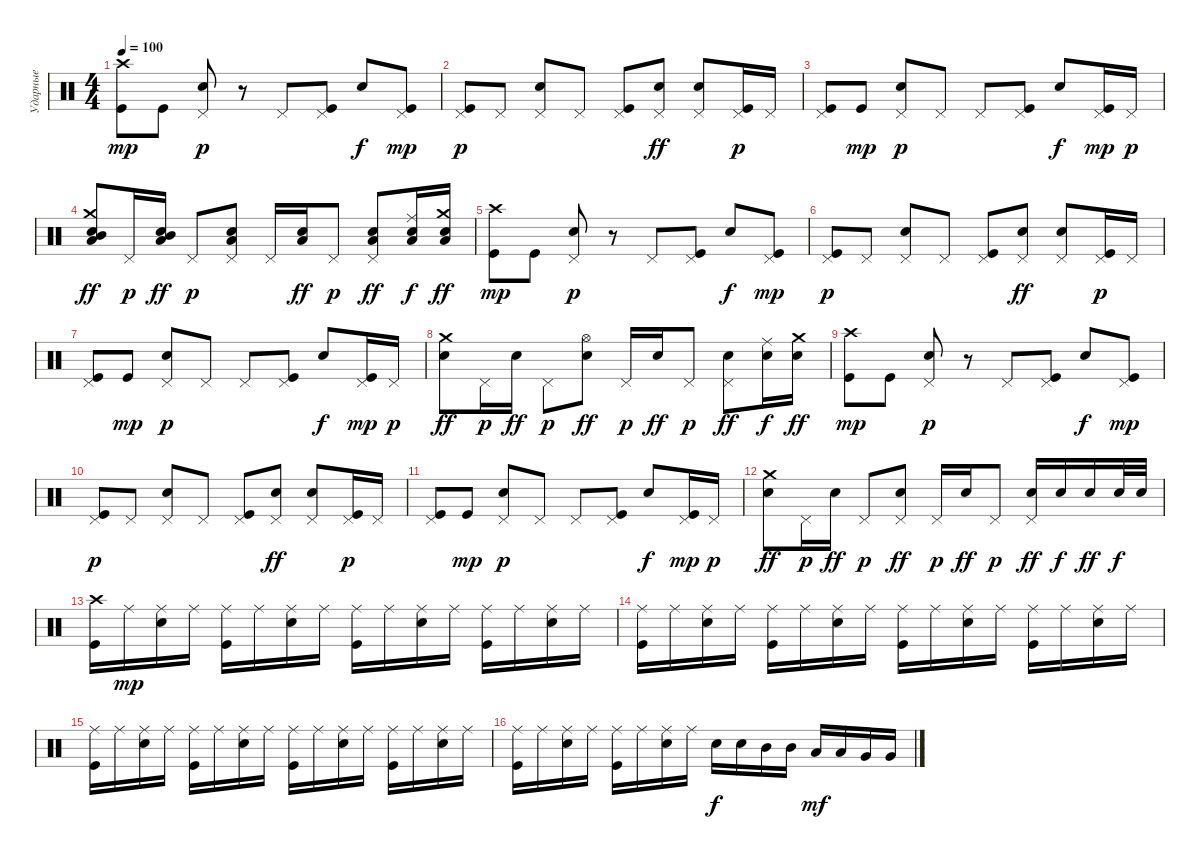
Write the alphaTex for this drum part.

\track ("Ударные" "Ударные") {instrument percussion}
\staff {score}
\articulation defaults
\ts (4 4)
\tempo 100
\clef neutral
\ks c
("Crash high (hit)" "Kick (hit)").8{dy mp} "Kick (hit)".8 ("Pedal Hi-Hat (hit)" "Snare (hit) 2").8{dy p} r.8 "Pedal Hi-Hat (hit)".8 ("Pedal Hi-Hat (hit)" "Kick (hit)").8 "Snare (hit) 2".8{dy f} ("Pedal Hi-Hat (hit)" "Kick (hit)").8{dy mp} |
("Pedal Hi-Hat (hit)" "Kick (hit)").8{dy p} "Pedal Hi-Hat (hit)".8 ("Pedal Hi-Hat (hit)" "Snare (hit) 2").8 "Pedal Hi-Hat (hit)".8 ("Pedal Hi-Hat (hit)" "Kick (hit)").8 ("Pedal Hi-Hat (hit)" "Electric Snare (hit)").8{dy ff} ("Pedal Hi-Hat (hit)" "Electric Snare (hit)").8 ("Pedal Hi-Hat (hit)" "Kick (hit)").16{dy p} "Pedal Hi-Hat (hit)".16 |
("Pedal Hi-Hat (hit)" "Kick (hit)").8 "Kick (hit)".8{dy mp} ("Pedal Hi-Hat (hit)" "Snare (hit) 2").8{dy p} "Pedal Hi-Hat (hit)".8 "Pedal Hi-Hat (hit)".8 ("Pedal Hi-Hat (hit)" "Kick (hit)").8 "Snare (hit) 2".8{dy f} ("Pedal Hi-Hat (hit)" "Kick (hit)").16{dy mp} "Pedal Hi-Hat (hit)".16{dy p} |
("Crash medium (hit)" "Mid Tom (hit)" "Snare (hit) 2" "Low Tom (hit)").8{dy ff} "Pedal Hi-Hat (hit)".16{dy p} ("Snare (hit) 2" "Low Tom (hit)" "Mid Tom (hit)").16{dy ff} "Pedal Hi-Hat (hit)".8{dy p} ("Pedal Hi-Hat (hit)" "Snare (hit) 2" "Low Tom (hit)").8 "Pedal Hi-Hat (hit)".16 ("Snare (hit) 2" "Low Tom (hit)").16{dy ff} "Pedal Hi-Hat (hit)".8{dy p} ("Pedal Hi-Hat (hit)" "Snare (hit) 2" "Low Tom (hit)").8{dy ff} ("Snare (hit) 2" "Ride (middle)" "Low Tom (hit)").16{dy f} ("Crash medium (hit)" "Snare (hit) 2" "Low Tom (hit)").16{dy ff} |
("Crash high (hit)" "Kick (hit)").8{dy mp} "Kick (hit)".8 ("Pedal Hi-Hat (hit)" "Snare (hit) 2").8{dy p} r.8 "Pedal Hi-Hat (hit)".8 ("Pedal Hi-Hat (hit)" "Kick (hit)").8 "Snare (hit) 2".8{dy f} ("Pedal Hi-Hat (hit)" "Kick (hit)").8{dy mp} |
("Pedal Hi-Hat (hit)" "Kick (hit)").8{dy p} "Pedal Hi-Hat (hit)".8 ("Pedal Hi-Hat (hit)" "Snare (hit) 2").8 "Pedal Hi-Hat (hit)".8 ("Pedal Hi-Hat (hit)" "Kick (hit)").8 ("Pedal Hi-Hat (hit)" "Electric Snare (hit)").8{dy ff} ("Pedal Hi-Hat (hit)" "Electric Snare (hit)").8 ("Pedal Hi-Hat (hit)" "Kick (hit)").16{dy p} "Pedal Hi-Hat (hit)".16 |
("Pedal Hi-Hat (hit)" "Kick (hit)").8 "Kick (hit)".8{dy mp} ("Pedal Hi-Hat (hit)" "Snare (hit) 2").8{dy p} "Pedal Hi-Hat (hit)".8 "Pedal Hi-Hat (hit)".8 ("Pedal Hi-Hat (hit)" "Kick (hit)").8 "Snare (hit) 2".8{dy f} ("Pedal Hi-Hat (hit)" "Kick (hit)").16{dy mp} "Pedal Hi-Hat (hit)".16{dy p} |
("Crash medium (hit)" "Snare (hit) 2").8{dy ff} "Pedal Hi-Hat (hit)".16{dy p} "Snare (hit) 2".16{dy ff} "Pedal Hi-Hat (hit)".8{dy p} ("Hi-Hat (open)" "Snare (hit) 2").8{dy ff} "Pedal Hi-Hat (hit)".16{dy p} "Snare (hit) 2".16{dy ff} "Pedal Hi-Hat (hit)".8{dy p} ("Pedal Hi-Hat (hit)" "Snare (hit) 2").8{dy ff} ("Snare (hit) 2" "Ride (middle)").16{dy f} ("Crash medium (hit)" "Snare (hit) 2").16{dy ff} |
("Crash high (hit)" "Kick (hit)").8{dy mp} "Kick (hit)".8 ("Pedal Hi-Hat (hit)" "Snare (hit) 2").8{dy p} r.8 "Pedal Hi-Hat (hit)".8 ("Pedal Hi-Hat (hit)" "Kick (hit)").8 "Snare (hit) 2".8{dy f} ("Pedal Hi-Hat (hit)" "Kick (hit)").8{dy mp} |
("Pedal Hi-Hat (hit)" "Kick (hit)").8{dy p} "Pedal Hi-Hat (hit)".8 ("Pedal Hi-Hat (hit)" "Snare (hit) 2").8 "Pedal Hi-Hat (hit)".8 ("Pedal Hi-Hat (hit)" "Kick (hit)").8 ("Pedal Hi-Hat (hit)" "Electric Snare (hit)").8{dy ff} ("Pedal Hi-Hat (hit)" "Electric Snare (hit)").8 ("Pedal Hi-Hat (hit)" "Kick (hit)").16{dy p} "Pedal Hi-Hat (hit)".16 |
("Pedal Hi-Hat (hit)" "Kick (hit)").8 "Kick (hit)".8{dy mp} ("Pedal Hi-Hat (hit)" "Snare (hit) 2").8{dy p} "Pedal Hi-Hat (hit)".8 "Pedal Hi-Hat (hit)".8 ("Pedal Hi-Hat (hit)" "Kick (hit)").8 "Snare (hit) 2".8{dy f} ("Pedal Hi-Hat (hit)" "Kick (hit)").16{dy mp} "Pedal Hi-Hat (hit)".16{dy p} |
("Crash medium (hit)" "Snare (hit) 2").8{dy ff} "Pedal Hi-Hat (hit)".16{dy p} "Snare (hit) 2".16{dy ff} "Pedal Hi-Hat (hit)".8{dy p} ("Pedal Hi-Hat (hit)" "Snare (hit) 2").8{dy ff} "Pedal Hi-Hat (hit)".16{dy p} "Snare (hit) 2".16{dy ff} "Pedal Hi-Hat (hit)".8{dy p} ("Pedal Hi-Hat (hit)" "Snare (hit) 2").16{dy ff} "Snare (hit) 2".16{dy f} "Snare (hit) 2".16{dy ff} "Snare (hit) 2".32{dy f} "Snare (hit) 2".32 |
("Crash high (hit)" "Kick (hit)").16 "Ride (middle)".16{dy mp} ("Ride (middle)" "Snare (hit) 2").16 "Ride (middle)".16 ("Ride (middle)" "Kick (hit)").16 "Ride (middle)".16 ("Ride (middle)" "Snare (hit) 2").16 "Ride (middle)".16 ("Ride (middle)" "Kick (hit)").16 "Ride (middle)".16 ("Ride (middle)" "Snare (hit) 2").16 "Ride (middle)".16 ("Ride (middle)" "Kick (hit)").16 "Ride (middle)".16 ("Ride (middle)" "Snare (hit) 2").16 "Ride (middle)".16 |
("Ride (middle)" "Kick (hit)").16 "Ride (middle)".16 ("Ride (middle)" "Snare (hit) 2").16 "Ride (middle)".16 ("Ride (middle)" "Kick (hit)").16 "Ride (middle)".16 ("Ride (middle)" "Snare (hit) 2").16 "Ride (middle)".16 ("Ride (middle)" "Kick (hit)").16 "Ride (middle)".16 ("Ride (middle)" "Snare (hit) 2").16 "Ride (middle)".16 ("Ride (middle)" "Kick (hit)").16 "Ride (middle)".16 ("Ride (middle)" "Snare (hit) 2").16 "Ride (middle)".16 |
("Ride (middle)" "Kick (hit)").16 "Ride (middle)".16 ("Ride (middle)" "Snare (hit) 2").16 "Ride (middle)".16 ("Ride (middle)" "Kick (hit)").16 "Ride (middle)".16 ("Ride (middle)" "Snare (hit) 2").16 "Ride (middle)".16 ("Ride (middle)" "Kick (hit)").16 "Ride (middle)".16 ("Ride (middle)" "Snare (hit) 2").16 "Ride (middle)".16 ("Ride (middle)" "Kick (hit)").16 "Ride (middle)".16 ("Ride (middle)" "Snare (hit) 2").16 "Ride (middle)".16 |
("Ride (middle)" "Kick (hit)").16 "Ride (middle)".16 ("Ride (middle)" "Snare (hit) 2").16 "Ride (middle)".16 ("Ride (middle)" "Kick (hit)").16 "Ride (middle)".16 ("Ride (middle)" "Snare (hit) 2").16 "Ride (middle)".16 "Snare (hit) 2".16{dy f} "Snare (hit) 2".16 "Mid Tom (hit)".16 "Mid Tom (hit)".16 "Low Tom (hit)".16{dy mf} "Low Tom (hit)".16 "Very Low Tom (hit)".16 "Very Low Tom (hit)".16
